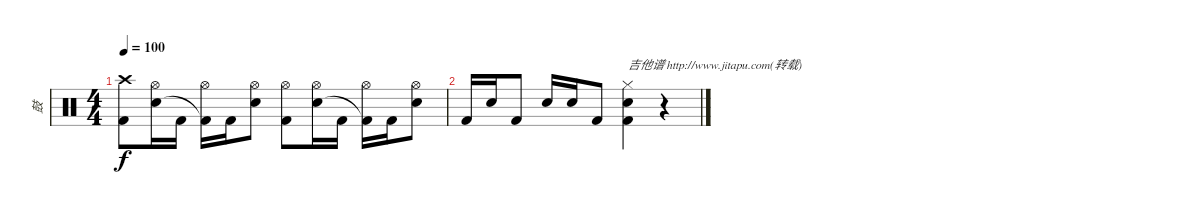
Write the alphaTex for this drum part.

\track ("鼓" "鼓") {instrument percussion}
\staff {score}
\articulation defaults
\ts (4 4)
\tempo 100
\clef neutral
\ks c
("Crash high (hit)" "Kick (hit) 2").8{dy f} ("Hi-Hat (open)" "Snare (hit) 2").16 "Kick (hit) 2".16 ("Hi-Hat (open)" "Kick (hit) 2"{t}).16 "Kick (hit) 2".16 ("Hi-Hat (open)" "Snare (hit) 2").8 ("Hi-Hat (open)" "Kick (hit) 2").8 ("Hi-Hat (open)" "Snare (hit) 2").16 "Kick (hit) 2".16 ("Hi-Hat (open)" "Kick (hit) 2"{t}).16 "Kick (hit) 2".16 ("Hi-Hat (open)" "Snare (hit) 2").8 |
"Kick (hit) 2".16 "Snare (hit) 2".16 "Kick (hit) 2".8 "Snare (hit) 2".16 "Snare (hit) 2".16 "Kick (hit) 2".8 ("Hi-Hat (closed)" "Kick (hit) 2" "Snare (hit) 2").4{txt "吉他谱 http://www.jitapu.com(转载)"} r.4
